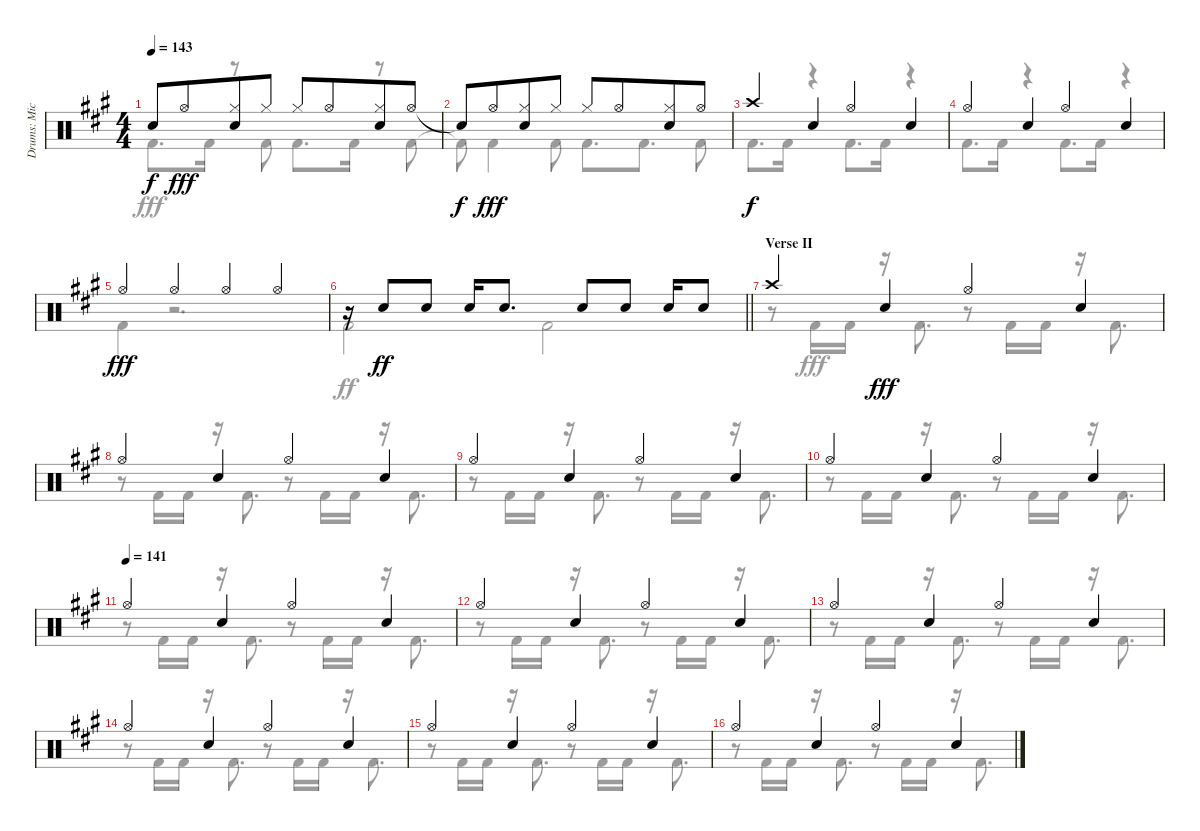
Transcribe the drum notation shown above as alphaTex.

\track ("Drums: Mick" "Drums: Mic") {instrument percussion}
\staff {score}
\articulation defaults
\voice
\ts (4 4)
\tempo 143
\clef neutral
\ks a "Snare (hit)"{t}.8{dy f} "Hi-Hat (open)".8{dy fff beam merge}
("Hi-Hat (closed)" "Snare (hit) 2").8 "Hi-Hat (closed)".8 "Hi-Hat (closed)".8 "Hi-Hat (open)".8{beam merge} ("Hi-Hat (closed)" "Snare (hit) 2").8 "Hi-Hat (open)".8 |
"Snare (hit)"{t}.8{dy f} "Hi-Hat (open)".8{dy fff beam merge} ("Hi-Hat (closed)" "Snare (hit) 2").8 "Hi-Hat (closed)".8 "Hi-Hat (closed)".8 "Hi-Hat (open)".8{beam merge} ("Hi-Hat (closed)" "Snare (hit) 2").8 "Hi-Hat (open)".8 |
"Crash high (hit)".4{dy f} "Snare (hit) 2".4 "Hi-Hat (open)".4 "Snare (hit) 2".4 |
"Hi-Hat (open)".4 "Snare (hit) 2".4 "Hi-Hat (open)".4 "Snare (hit) 2".4 |
"Hi-Hat (open)".4{dy fff} "Hi-Hat (open)".4 "Hi-Hat (open)".4 "Hi-Hat (open)".4 |
\barLineRight lightlight
r.16 "Snare (hit) 2".8{dy ff} "Snare (hit) 2".8 "Snare (hit) 2".16 "Snare (hit) 2".8{d} "Snare (hit) 2".8 "Snare (hit) 2".8 "Snare (hit) 2".16 "Snare (hit) 2".8 |
\section ("" "Verse II")
"Crash high (hit)".4 "Snare (hit) 2".4{dy fff} "Hi-Hat (open)".4 "Snare (hit) 2".4 |
"Hi-Hat (open)".4 "Snare (hit) 2".4 "Hi-Hat (open)".4 "Snare (hit) 2".4 |
"Hi-Hat (open)".4 "Snare (hit) 2".4 "Hi-Hat (open)".4 "Snare (hit) 2".4 |
"Hi-Hat (open)".4 "Snare (hit) 2".4 "Hi-Hat (open)".4 "Snare (hit) 2".4 |
\tempo (141)
"Hi-Hat (open)".4 "Snare (hit) 2".4 "Hi-Hat (open)".4 "Snare (hit) 2".4 |
"Hi-Hat (open)".4 "Snare (hit) 2".4 "Hi-Hat (open)".4 "Snare (hit) 2".4 |
"Hi-Hat (open)".4 "Snare (hit) 2".4 "Hi-Hat (open)".4 "Snare (hit) 2".4 |
"Hi-Hat (open)".4 "Snare (hit) 2".4 "Hi-Hat (open)".4 "Snare (hit) 2".4 |
"Hi-Hat (open)".4 "Snare (hit) 2".4 "Hi-Hat (open)".4 "Snare (hit) 2".4 |
"Hi-Hat (open)".4 "Snare (hit) 2".4 "Hi-Hat (open)".4 "Snare (hit) 2".4
\voice
\clef neutral
\ottava regular
\simile none
\ks a "Kick (hit) 2".8{d dy fff} "Kick (hit) 2".16
r.8 "Kick (hit) 2".8 "Kick (hit) 2".8{d} "Kick (hit) 2".16 r.8 "Kick (hit) 2".8 |
"Kick (hit) 2"{t}.8{dy f} "Kick (hit) 2".4{dy fff} "Kick (hit) 2".8 "Kick (hit) 2".8{d} "Kick (hit) 2".8{d} "Kick (hit) 2".8 |
"Kick (hit) 2".8{d dy f} "Kick (hit) 2".16 r.4 "Kick (hit) 2".8{d} "Kick (hit) 2".16 r.4 |
"Kick (hit) 2".8{d} "Kick (hit) 2".16 r.4 "Kick (hit) 2".8{d} "Kick (hit) 2".16 r.4 |
"Kick (hit) 2".4{dy fff} r.2{d} |
\barLineRight lightlight "Kick (hit) 2".2{dy ff} "Kick (hit) 2".2
|
r.8 "Kick (hit) 2".16{dy fff} "Kick (hit) 2".16 r.16 "Kick (hit) 2".8{d} r.8 "Kick (hit) 2".16 "Kick (hit) 2".16 r.16 "Kick (hit) 2".8{d} |
r.8 "Kick (hit) 2".16 "Kick (hit) 2".16 r.16 "Kick (hit) 2".8{d} r.8 "Kick (hit) 2".16 "Kick (hit) 2".16 r.16 "Kick (hit) 2".8{d} |
r.8 "Kick (hit) 2".16 "Kick (hit) 2".16 r.16 "Kick (hit) 2".8{d} r.8 "Kick (hit) 2".16 "Kick (hit) 2".16 r.16 "Kick (hit) 2".8{d} |
r.8 "Kick (hit) 2".16 "Kick (hit) 2".16 r.16 "Kick (hit) 2".8{d} r.8 "Kick (hit) 2".16 "Kick (hit) 2".16 r.16 "Kick (hit) 2".8{d} |
r.8 "Kick (hit) 2".16 "Kick (hit) 2".16 r.16 "Kick (hit) 2".8{d} r.8 "Kick (hit) 2".16 "Kick (hit) 2".16 r.16 "Kick (hit) 2".8{d} |
r.8 "Kick (hit) 2".16 "Kick (hit) 2".16 r.16 "Kick (hit) 2".8{d} r.8 "Kick (hit) 2".16 "Kick (hit) 2".16 r.16 "Kick (hit) 2".8{d} |
r.8 "Kick (hit) 2".16 "Kick (hit) 2".16 r.16 "Kick (hit) 2".8{d} r.8 "Kick (hit) 2".16 "Kick (hit) 2".16 r.16 "Kick (hit) 2".8{d} |
r.8 "Kick (hit) 2".16 "Kick (hit) 2".16 r.16 "Kick (hit) 2".8{d} r.8 "Kick (hit) 2".16 "Kick (hit) 2".16 r.16 "Kick (hit) 2".8{d} |
r.8 "Kick (hit) 2".16 "Kick (hit) 2".16 r.16 "Kick (hit) 2".8{d} r.8 "Kick (hit) 2".16 "Kick (hit) 2".16 r.16 "Kick (hit) 2".8{d} |
r.8 "Kick (hit) 2".16 "Kick (hit) 2".16 r.16 "Kick (hit) 2".8{d} r.8 "Kick (hit) 2".16 "Kick (hit) 2".16 r.16 "Kick (hit) 2".8{d}
